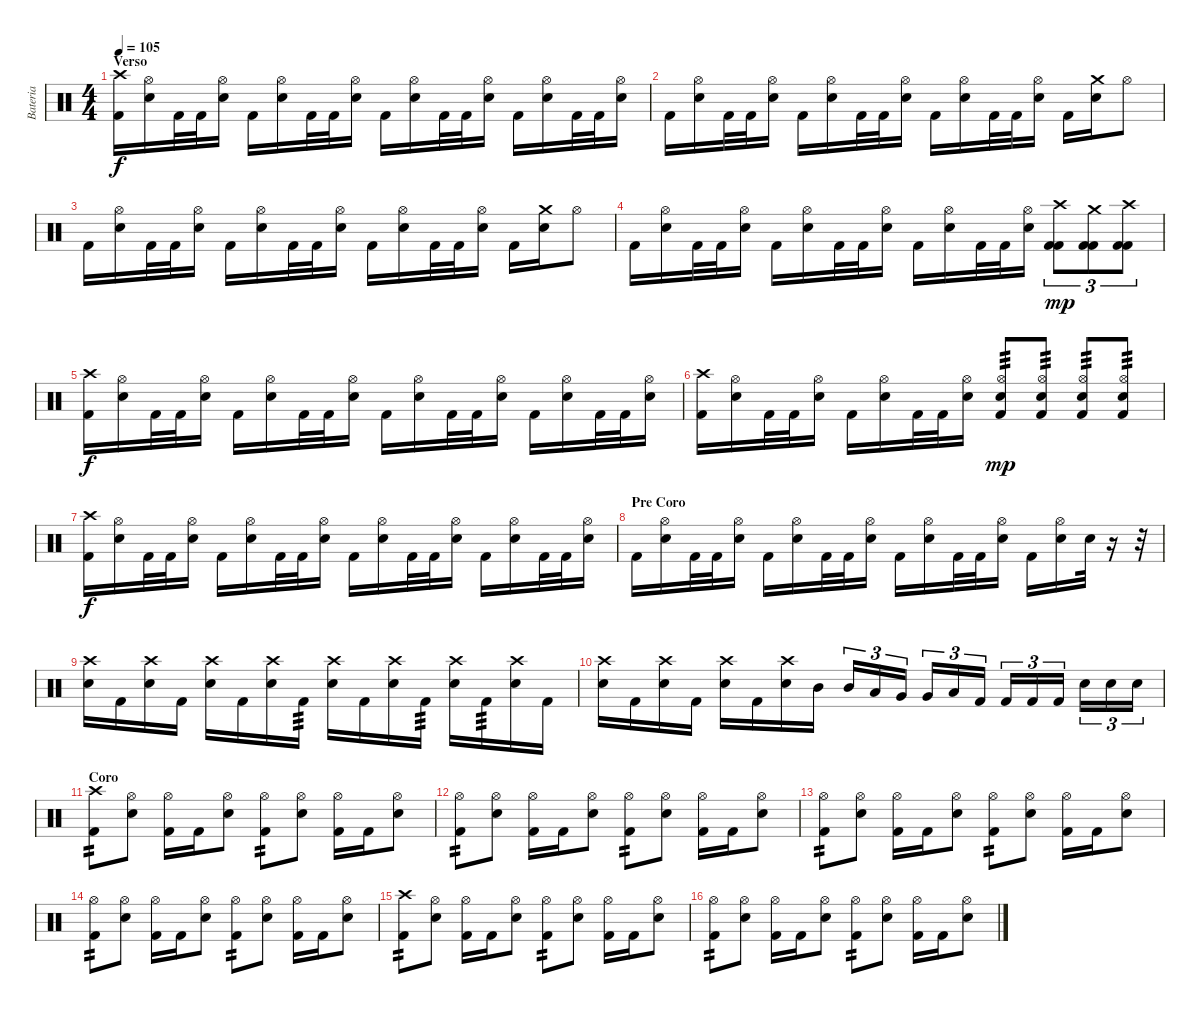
\track ("Bateria" "Bateria") {instrument percussion}
\staff {score}
\articulation defaults
\ts (4 4)
\section ("" "Verso")
\tempo 105
\clef neutral
\ks c
("Crash high (hit)" "Kick (hit) 2").16{dy f} ("Hi-Hat (open)" "Electric Snare (hit)").16 "Kick (hit) 2".32 "Kick (hit) 2".32 ("Hi-Hat (open)" "Electric Snare (hit)").16 "Kick (hit) 2".16 ("Hi-Hat (open)" "Electric Snare (hit)").16 "Kick (hit) 2".32 "Kick (hit) 2".32 ("Hi-Hat (open)" "Electric Snare (hit)").16 "Kick (hit) 2".16 ("Hi-Hat (open)" "Electric Snare (hit)").16 "Kick (hit) 2".32 "Kick (hit) 2".32 ("Hi-Hat (open)" "Electric Snare (hit)").16 "Kick (hit) 2".16 ("Hi-Hat (open)" "Electric Snare (hit)").16 "Kick (hit) 2".32 "Kick (hit) 2".32 ("Hi-Hat (open)" "Electric Snare (hit)").16 |
"Kick (hit) 2".16 ("Hi-Hat (open)" "Electric Snare (hit)").16 "Kick (hit) 2".32 "Kick (hit) 2".32 ("Hi-Hat (open)" "Electric Snare (hit)").16 "Kick (hit) 2".16 ("Hi-Hat (open)" "Electric Snare (hit)").16 "Kick (hit) 2".32 "Kick (hit) 2".32 ("Hi-Hat (open)" "Electric Snare (hit)").16 "Kick (hit) 2".16 ("Hi-Hat (open)" "Electric Snare (hit)").16 "Kick (hit) 2".32 "Kick (hit) 2".32 ("Hi-Hat (open)" "Electric Snare (hit)").16 "Kick (hit) 2".16 ("Crash medium (hit)" "Electric Snare (hit)").16 "Hi-Hat (open)".8 |
"Kick (hit) 2".16 ("Hi-Hat (open)" "Electric Snare (hit)").16 "Kick (hit) 2".32 "Kick (hit) 2".32 ("Hi-Hat (open)" "Electric Snare (hit)").16 "Kick (hit) 2".16 ("Hi-Hat (open)" "Electric Snare (hit)").16 "Kick (hit) 2".32 "Kick (hit) 2".32 ("Hi-Hat (open)" "Electric Snare (hit)").16 "Kick (hit) 2".16 ("Hi-Hat (open)" "Electric Snare (hit)").16 "Kick (hit) 2".32 "Kick (hit) 2".32 ("Hi-Hat (open)" "Electric Snare (hit)").16 "Kick (hit) 2".16 ("Crash medium (hit)" "Electric Snare (hit)").16 "Hi-Hat (open)".8 |
"Kick (hit) 2".16 ("Hi-Hat (open)" "Electric Snare (hit)").16 "Kick (hit) 2".32 "Kick (hit) 2".32 ("Hi-Hat (open)" "Electric Snare (hit)").16 "Kick (hit) 2".16 ("Hi-Hat (open)" "Electric Snare (hit)").16 "Kick (hit) 2".32 "Kick (hit) 2".32 ("Hi-Hat (open)" "Electric Snare (hit)").16 "Kick (hit) 2".16 ("Hi-Hat (open)" "Electric Snare (hit)").16 "Kick (hit) 2".32 "Kick (hit) 2".32 ("Hi-Hat (open)" "Electric Snare (hit)").16 ("Kick (hit) 2" "Kick (hit) 2" "Crash high (hit)").8{tu (3 2) dy mp} ("Kick (hit) 2" "Kick (hit) 2" "Crash medium (hit)").8{tu (3 2)} ("Kick (hit) 2" "Kick (hit) 2" "Crash high (hit)").8{tu (3 2)} |
("Crash high (hit)" "Kick (hit) 2").16{dy f} ("Hi-Hat (open)" "Electric Snare (hit)").16 "Kick (hit) 2".32 "Kick (hit) 2".32 ("Hi-Hat (open)" "Electric Snare (hit)").16 "Kick (hit) 2".16 ("Hi-Hat (open)" "Electric Snare (hit)").16 "Kick (hit) 2".32 "Kick (hit) 2".32 ("Hi-Hat (open)" "Electric Snare (hit)").16 "Kick (hit) 2".16 ("Hi-Hat (open)" "Electric Snare (hit)").16 "Kick (hit) 2".32 "Kick (hit) 2".32 ("Hi-Hat (open)" "Electric Snare (hit)").16 "Kick (hit) 2".16 ("Hi-Hat (open)" "Electric Snare (hit)").16 "Kick (hit) 2".32 "Kick (hit) 2".32 ("Hi-Hat (open)" "Electric Snare (hit)").16 |
("Crash high (hit)" "Kick (hit) 2").16 ("Hi-Hat (open)" "Electric Snare (hit)").16 "Kick (hit) 2".32 "Kick (hit) 2".32 ("Hi-Hat (open)" "Electric Snare (hit)").16 "Kick (hit) 2".16 ("Hi-Hat (open)" "Electric Snare (hit)").16 "Kick (hit) 2".32 "Kick (hit) 2".32 ("Hi-Hat (open)" "Electric Snare (hit)").16 ("Hi-Hat (open)" "Kick (hit) 2" "Electric Snare (hit)").8{tp 3 dy mp} ("Hi-Hat (open)" "Kick (hit) 2" "Electric Snare (hit)").8{tp 3} ("Hi-Hat (open)" "Kick (hit) 2" "Electric Snare (hit)").8{tp 3} ("Hi-Hat (open)" "Kick (hit) 2" "Electric Snare (hit)").8{tp 3} |
("Crash high (hit)" "Kick (hit) 2").16{dy f} ("Hi-Hat (open)" "Electric Snare (hit)").16 "Kick (hit) 2".32 "Kick (hit) 2".32 ("Hi-Hat (open)" "Electric Snare (hit)").16 "Kick (hit) 2".16 ("Hi-Hat (open)" "Electric Snare (hit)").16 "Kick (hit) 2".32 "Kick (hit) 2".32 ("Hi-Hat (open)" "Electric Snare (hit)").16 "Kick (hit) 2".16 ("Hi-Hat (open)" "Electric Snare (hit)").16 "Kick (hit) 2".32 "Kick (hit) 2".32 ("Hi-Hat (open)" "Electric Snare (hit)").16 "Kick (hit) 2".16 ("Hi-Hat (open)" "Electric Snare (hit)").16 "Kick (hit) 2".32 "Kick (hit) 2".32 ("Hi-Hat (open)" "Electric Snare (hit)").16 |
\section ("" "Pre Coro")
"Kick (hit) 2".16 ("Hi-Hat (open)" "Electric Snare (hit)").16 "Kick (hit) 2".32 "Kick (hit) 2".32 ("Hi-Hat (open)" "Electric Snare (hit)").16 "Kick (hit) 2".16 ("Hi-Hat (open)" "Electric Snare (hit)").16 "Kick (hit) 2".32 "Kick (hit) 2".32 ("Hi-Hat (open)" "Electric Snare (hit)").16 "Kick (hit) 2".16 ("Hi-Hat (open)" "Electric Snare (hit)").16 "Kick (hit) 2".32 "Kick (hit) 2".32 ("Hi-Hat (open)" "Electric Snare (hit)").16 "Kick (hit) 2".16 ("Hi-Hat (open)" "Electric Snare (hit)").16 "Electric Snare (hit)".32 r.16 r.32 |
("Electric Snare (hit)" "Crash high (hit)").16 "Kick (hit) 2".16 ("Electric Snare (hit)" "Crash high (hit)").16 "Kick (hit) 2".16 ("Electric Snare (hit)" "Crash high (hit)").16 "Kick (hit) 2".16 ("Electric Snare (hit)" "Crash high (hit)").16 "Kick (hit) 2".16{tp 3} ("Electric Snare (hit)" "Crash high (hit)").16 "Kick (hit) 2".16 ("Crash high (hit)" "Electric Snare (hit)").16 "Kick (hit) 2".16{tp 3} ("Crash high (hit)" "Electric Snare (hit)").16 "Kick (hit) 2".16{tp 3} ("Crash high (hit)" "Electric Snare (hit)").16 "Kick (hit) 2".16 |
("Electric Snare (hit)" "Crash high (hit)").16 "Kick (hit) 2".16 ("Electric Snare (hit)" "Crash high (hit)").16 "Kick (hit) 2".16 ("Electric Snare (hit)" "Crash high (hit)").16 "Kick (hit) 2".16 ("Electric Snare (hit)" "Crash high (hit)").16 "Mid Tom (hit)".16 "Mid Tom (hit)".16{tu (3 2)} "Low Tom (hit)".16{tu (3 2)} "Very Low Tom (hit)".16{tu (3 2)} "Very Low Tom (hit)".16{tu (3 2)} "Low Floor Tom (hit)".16{tu (3 2)} "Kick (hit) 2".16{tu (3 2)} "Kick (hit) 2".16{tu (3 2)} "Kick (hit) 2".16{tu (3 2)} "Kick (hit) 2".16{tu (3 2)} "Electric Snare (hit)".16{tu (3 2)} "Electric Snare (hit)".16{tu (3 2)} "Electric Snare (hit)".16{tu (3 2)} |
\section ("" "Coro")
("Crash high (hit)" "Kick (hit) 2").8{tp 2} ("Hi-Hat (open)" "Electric Snare (hit)").8 ("Hi-Hat (open)" "Kick (hit) 2").16 "Kick (hit) 2".16 ("Hi-Hat (open)" "Electric Snare (hit)").8 ("Hi-Hat (open)" "Kick (hit) 2").8{tp 2} ("Hi-Hat (open)" "Electric Snare (hit)").8 ("Hi-Hat (open)" "Kick (hit) 2").16 "Kick (hit) 2".16 ("Hi-Hat (open)" "Electric Snare (hit)").8 |
("Hi-Hat (open)" "Kick (hit) 2").8{tp 2} ("Hi-Hat (open)" "Electric Snare (hit)").8 ("Hi-Hat (open)" "Kick (hit) 2").16 "Kick (hit) 2".16 ("Hi-Hat (open)" "Electric Snare (hit)").8 ("Hi-Hat (open)" "Kick (hit) 2").8{tp 2} ("Hi-Hat (open)" "Electric Snare (hit)").8 ("Hi-Hat (open)" "Kick (hit) 2").16 "Kick (hit) 2".16 ("Hi-Hat (open)" "Electric Snare (hit)").8 |
("Hi-Hat (open)" "Kick (hit) 2").8{tp 2} ("Hi-Hat (open)" "Electric Snare (hit)").8 ("Hi-Hat (open)" "Kick (hit) 2").16 "Kick (hit) 2".16 ("Hi-Hat (open)" "Electric Snare (hit)").8 ("Hi-Hat (open)" "Kick (hit) 2").8{tp 2} ("Hi-Hat (open)" "Electric Snare (hit)").8 ("Hi-Hat (open)" "Kick (hit) 2").16 "Kick (hit) 2".16 ("Hi-Hat (open)" "Electric Snare (hit)").8 |
("Hi-Hat (open)" "Kick (hit) 2").8{tp 2} ("Hi-Hat (open)" "Electric Snare (hit)").8 ("Hi-Hat (open)" "Kick (hit) 2").16 "Kick (hit) 2".16 ("Hi-Hat (open)" "Electric Snare (hit)").8 ("Hi-Hat (open)" "Kick (hit) 2").8{tp 2} ("Hi-Hat (open)" "Electric Snare (hit)").8 ("Hi-Hat (open)" "Kick (hit) 2").16 "Kick (hit) 2".16 ("Hi-Hat (open)" "Electric Snare (hit)").8 |
("Crash high (hit)" "Kick (hit) 2").8{tp 2} ("Hi-Hat (open)" "Electric Snare (hit)").8 ("Hi-Hat (open)" "Kick (hit) 2").16 "Kick (hit) 2".16 ("Hi-Hat (open)" "Electric Snare (hit)").8 ("Hi-Hat (open)" "Kick (hit) 2").8{tp 2} ("Hi-Hat (open)" "Electric Snare (hit)").8 ("Hi-Hat (open)" "Kick (hit) 2").16 "Kick (hit) 2".16 ("Hi-Hat (open)" "Electric Snare (hit)").8 |
("Hi-Hat (open)" "Kick (hit) 2").8{tp 2} ("Hi-Hat (open)" "Electric Snare (hit)").8 ("Hi-Hat (open)" "Kick (hit) 2").16 "Kick (hit) 2".16 ("Hi-Hat (open)" "Electric Snare (hit)").8 ("Hi-Hat (open)" "Kick (hit) 2").8{tp 2} ("Hi-Hat (open)" "Electric Snare (hit)").8 ("Hi-Hat (open)" "Kick (hit) 2").16 "Kick (hit) 2".16 ("Hi-Hat (open)" "Electric Snare (hit)").8
